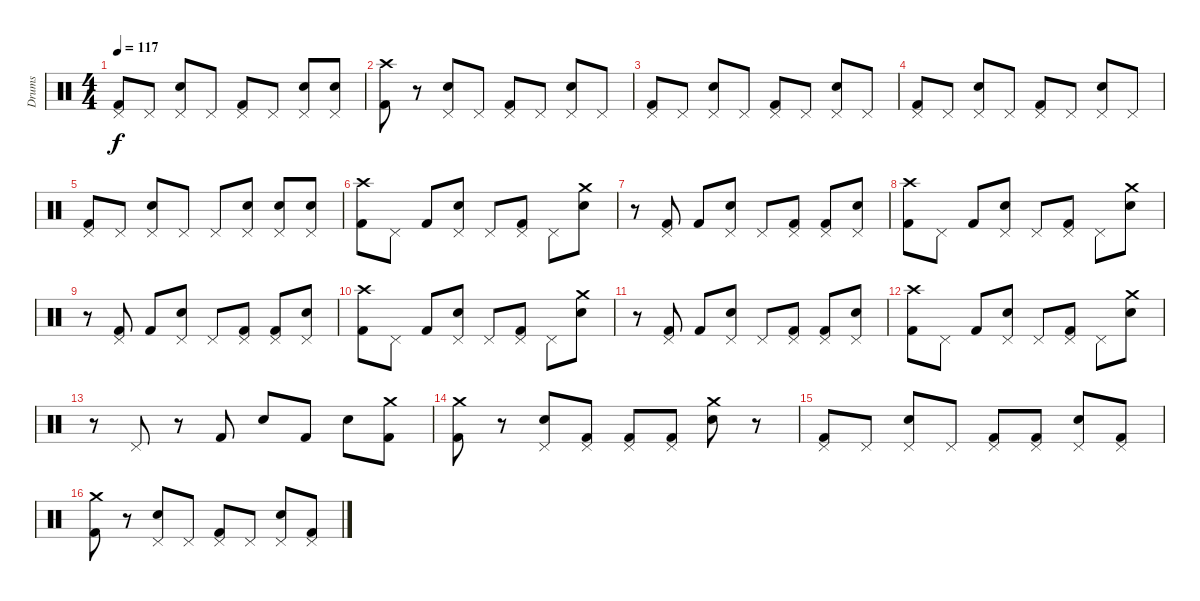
\track ("Drums" "Drums") {instrument percussion}
\staff {score}
\articulation defaults
\ts (4 4)
\tempo 117
\clef neutral
\ks c
("Pedal Hi-Hat (hit)" "Kick (hit) 2").8{dy f} "Pedal Hi-Hat (hit)".8 ("Pedal Hi-Hat (hit)" "Snare (hit) 2").8 "Pedal Hi-Hat (hit)".8 ("Pedal Hi-Hat (hit)" "Kick (hit) 2").8 "Pedal Hi-Hat (hit)".8 ("Pedal Hi-Hat (hit)" "Snare (hit) 2").8 ("Pedal Hi-Hat (hit)" "Snare (hit) 2").8 |
("Crash high (hit)" "Kick (hit) 2").8 r.8 ("Pedal Hi-Hat (hit)" "Snare (hit) 2").8 "Pedal Hi-Hat (hit)".8 ("Pedal Hi-Hat (hit)" "Kick (hit) 2").8 "Pedal Hi-Hat (hit)".8 ("Pedal Hi-Hat (hit)" "Snare (hit) 2").8 "Pedal Hi-Hat (hit)".8 |
("Pedal Hi-Hat (hit)" "Kick (hit) 2").8 "Pedal Hi-Hat (hit)".8 ("Pedal Hi-Hat (hit)" "Snare (hit) 2").8 "Pedal Hi-Hat (hit)".8 ("Pedal Hi-Hat (hit)" "Kick (hit) 2").8 "Pedal Hi-Hat (hit)".8 ("Pedal Hi-Hat (hit)" "Snare (hit) 2").8 "Pedal Hi-Hat (hit)".8 |
("Pedal Hi-Hat (hit)" "Kick (hit) 2").8 "Pedal Hi-Hat (hit)".8 ("Pedal Hi-Hat (hit)" "Snare (hit) 2").8 "Pedal Hi-Hat (hit)".8 ("Pedal Hi-Hat (hit)" "Kick (hit) 2").8 "Pedal Hi-Hat (hit)".8 ("Pedal Hi-Hat (hit)" "Snare (hit) 2").8 "Pedal Hi-Hat (hit)".8 |
("Pedal Hi-Hat (hit)" "Kick (hit) 2").8 "Pedal Hi-Hat (hit)".8 ("Pedal Hi-Hat (hit)" "Snare (hit) 2").8 "Pedal Hi-Hat (hit)".8 "Pedal Hi-Hat (hit)".8 ("Pedal Hi-Hat (hit)" "Snare (hit) 2").8 ("Pedal Hi-Hat (hit)" "Snare (hit) 2").8 ("Pedal Hi-Hat (hit)" "Snare (hit) 2").8 |
("Crash high (hit)" "Kick (hit) 2").8 "Pedal Hi-Hat (hit)".8 "Kick (hit) 2".8 ("Pedal Hi-Hat (hit)" "Snare (hit) 2").8 "Pedal Hi-Hat (hit)".8 ("Pedal Hi-Hat (hit)" "Kick (hit) 2").8 "Pedal Hi-Hat (hit)".8 ("Crash medium (hit)" "Snare (hit) 2").8 |
r.8 ("Pedal Hi-Hat (hit)" "Kick (hit) 2").8 "Kick (hit) 2".8 ("Pedal Hi-Hat (hit)" "Snare (hit) 2").8 "Pedal Hi-Hat (hit)".8 ("Pedal Hi-Hat (hit)" "Kick (hit) 2").8 ("Pedal Hi-Hat (hit)" "Kick (hit) 2").8 ("Pedal Hi-Hat (hit)" "Snare (hit) 2").8 |
("Crash high (hit)" "Kick (hit) 2").8 "Pedal Hi-Hat (hit)".8 "Kick (hit) 2".8 ("Pedal Hi-Hat (hit)" "Snare (hit) 2").8 "Pedal Hi-Hat (hit)".8 ("Pedal Hi-Hat (hit)" "Kick (hit) 2").8 "Pedal Hi-Hat (hit)".8 ("Crash medium (hit)" "Snare (hit) 2").8 |
r.8 ("Pedal Hi-Hat (hit)" "Kick (hit) 2").8 "Kick (hit) 2".8 ("Pedal Hi-Hat (hit)" "Snare (hit) 2").8 "Pedal Hi-Hat (hit)".8 ("Pedal Hi-Hat (hit)" "Kick (hit) 2").8 ("Pedal Hi-Hat (hit)" "Kick (hit) 2").8 ("Pedal Hi-Hat (hit)" "Snare (hit) 2").8 |
("Crash high (hit)" "Kick (hit) 2").8 "Pedal Hi-Hat (hit)".8 "Kick (hit) 2".8 ("Pedal Hi-Hat (hit)" "Snare (hit) 2").8 "Pedal Hi-Hat (hit)".8 ("Pedal Hi-Hat (hit)" "Kick (hit) 2").8 "Pedal Hi-Hat (hit)".8 ("Crash medium (hit)" "Snare (hit) 2").8 |
r.8 ("Pedal Hi-Hat (hit)" "Kick (hit) 2").8 "Kick (hit) 2".8 ("Pedal Hi-Hat (hit)" "Snare (hit) 2").8 "Pedal Hi-Hat (hit)".8 ("Pedal Hi-Hat (hit)" "Kick (hit) 2").8 ("Pedal Hi-Hat (hit)" "Kick (hit) 2").8 ("Pedal Hi-Hat (hit)" "Snare (hit) 2").8 |
("Crash high (hit)" "Kick (hit) 2").8 "Pedal Hi-Hat (hit)".8 "Kick (hit) 2".8 ("Pedal Hi-Hat (hit)" "Snare (hit) 2").8 "Pedal Hi-Hat (hit)".8 ("Pedal Hi-Hat (hit)" "Kick (hit) 2").8 "Pedal Hi-Hat (hit)".8 ("Crash medium (hit)" "Snare (hit) 2").8 |
r.8 "Pedal Hi-Hat (hit)".8 r.8 "Kick (hit) 2".8 "Snare (hit) 2".8 "Kick (hit) 2".8 "Snare (hit) 2".8 ("Crash medium (hit)" "Kick (hit) 2").8 |
("Crash medium (hit)" "Kick (hit) 2").8 r.8 ("Pedal Hi-Hat (hit)" "Snare (hit) 2").8 ("Pedal Hi-Hat (hit)" "Kick (hit) 2").8 ("Pedal Hi-Hat (hit)" "Kick (hit) 2").8 ("Pedal Hi-Hat (hit)" "Kick (hit) 2").8 ("Crash medium (hit)" "Snare (hit) 2").8 r.8 |
("Pedal Hi-Hat (hit)" "Kick (hit) 2").8 "Pedal Hi-Hat (hit)".8 ("Pedal Hi-Hat (hit)" "Snare (hit) 2").8 "Pedal Hi-Hat (hit)".8 ("Pedal Hi-Hat (hit)" "Kick (hit) 2").8 ("Pedal Hi-Hat (hit)" "Kick (hit) 2").8 ("Pedal Hi-Hat (hit)" "Snare (hit) 2").8 ("Pedal Hi-Hat (hit)" "Kick (hit) 2").8 |
("Crash medium (hit)" "Kick (hit) 2").8 r.8 ("Pedal Hi-Hat (hit)" "Snare (hit) 2").8 "Pedal Hi-Hat (hit)".8 ("Pedal Hi-Hat (hit)" "Kick (hit) 2").8 "Pedal Hi-Hat (hit)".8 ("Pedal Hi-Hat (hit)" "Snare (hit) 2").8 ("Pedal Hi-Hat (hit)" "Kick (hit) 2").8
